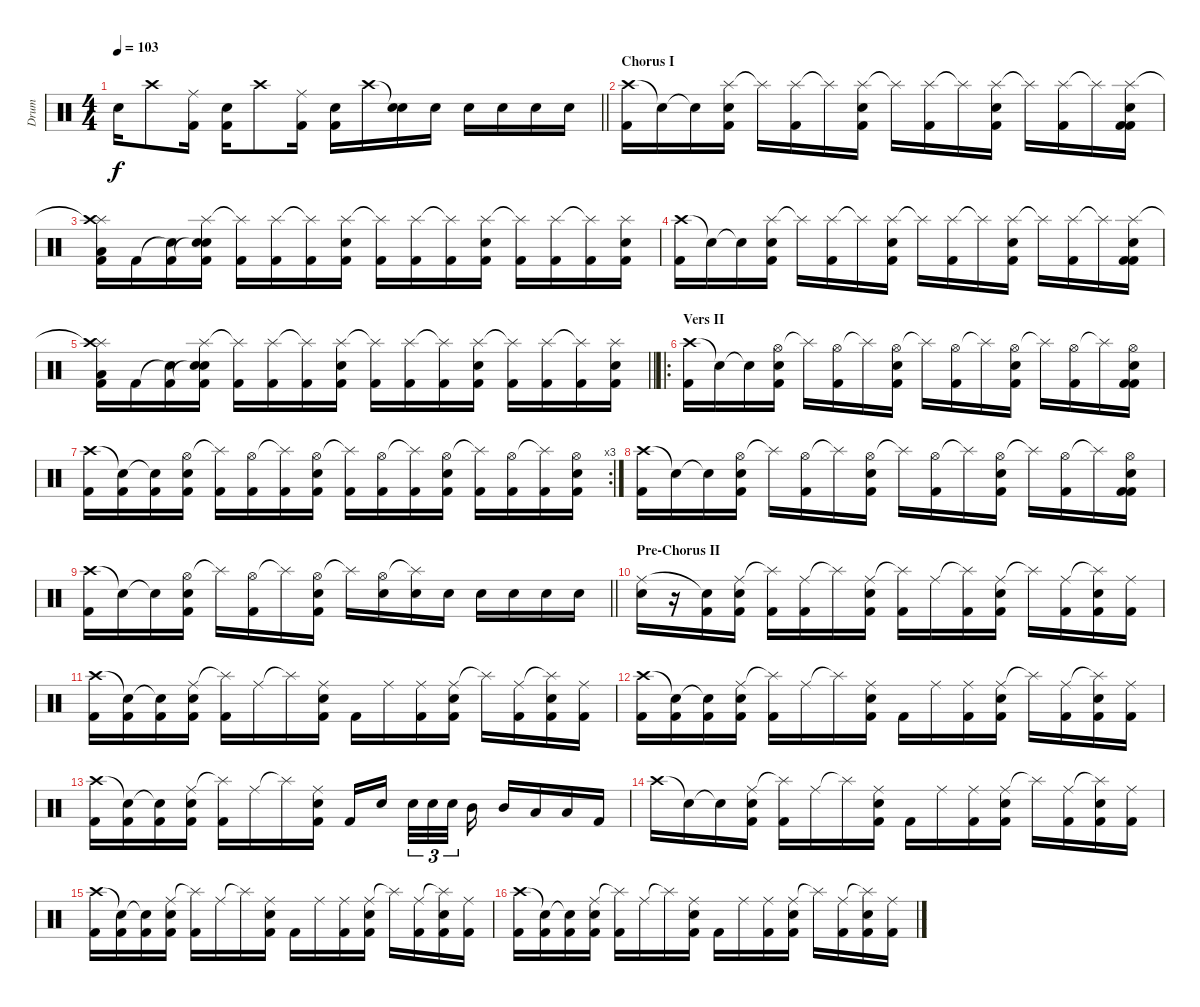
\track ("Drum" "Drum") {instrument percussion}
\staff {score}
\articulation defaults
\ts (4 4)
\tempo 103
\clef neutral
\barLineRight lightlight
\ks c "Snare (hit)"{t}.16{dy f} "Crash high (hit)".8
("Ride (middle)" "Kick (hit) 2").16 ("Electric Snare (hit)" "Kick (hit) 2").16 "Crash high (hit)".8 ("Ride (middle)" "Kick (hit) 2").16 ("Electric Snare (hit)" "Kick (hit) 2").16 "Crash high (hit)".16 ("Snare (hit)"{t} "Electric Snare (hit)").16 "Electric Snare (hit)".16 "Electric Snare (hit)".16 "Electric Snare (hit)".16 "Electric Snare (hit)".16 "Electric Snare (hit)".16 |
\section ("" "Chorus I")
("Crash high (hit)" "Kick (hit) 2").16 "Snare (hit)"{t}.16 "Snare (hit)"{t}.16 ("Splash (hit)" "Electric Snare (hit)" "Kick (hit) 2").16 "Splash (hit)"{t}.16 ("Splash (hit)" "Kick (hit) 2").16 "Splash (hit)"{t}.16 ("Splash (hit)" "Electric Snare (hit)" "Kick (hit) 2").16 "Splash (hit)"{t}.16 ("Splash (hit)" "Kick (hit) 2").16 "Splash (hit)"{t}.16 ("Splash (hit)" "Electric Snare (hit)" "Kick (hit) 2").16 "Splash (hit)"{t}.16 ("Splash (hit)" "Kick (hit) 2").16 "Splash (hit)"{t}.16 ("Splash (hit)" "Electric Snare (hit)" "Kick (hit) 2" "Kick (hit) 2").16 |
("Splash (hit)"{t} "Crash high (hit)" "Low Tom (hit)" "Kick (hit) 2").16 "Kick (hit) 2".16 ("Snare (hit)"{t} "Kick (hit) 2").16 ("Splash (hit)" "Snare (hit)"{t} "Electric Snare (hit)" "Kick (hit) 2").16 ("Splash (hit)"{t} "Kick (hit) 2").16 ("Splash (hit)" "Kick (hit) 2").16 ("Splash (hit)"{t} "Kick (hit) 2").16 ("Splash (hit)" "Electric Snare (hit)" "Kick (hit) 2").16 ("Splash (hit)"{t} "Kick (hit) 2").16 ("Splash (hit)" "Kick (hit) 2").16 ("Splash (hit)"{t} "Kick (hit) 2").16 ("Splash (hit)" "Electric Snare (hit)" "Kick (hit) 2").16 ("Splash (hit)"{t} "Kick (hit) 2").16 ("Splash (hit)" "Kick (hit) 2").16 ("Splash (hit)"{t} "Kick (hit) 2").16 ("Splash (hit)" "Electric Snare (hit)" "Kick (hit) 2").16 |
("Crash high (hit)" "Kick (hit) 2").16 "Snare (hit)"{t}.16 "Snare (hit)"{t}.16 ("Splash (hit)" "Electric Snare (hit)" "Kick (hit) 2").16 "Splash (hit)"{t}.16 ("Splash (hit)" "Kick (hit) 2").16 "Splash (hit)"{t}.16 ("Splash (hit)" "Electric Snare (hit)" "Kick (hit) 2").16 "Splash (hit)"{t}.16 ("Splash (hit)" "Kick (hit) 2").16 "Splash (hit)"{t}.16 ("Splash (hit)" "Electric Snare (hit)" "Kick (hit) 2").16 "Splash (hit)"{t}.16 ("Splash (hit)" "Kick (hit) 2").16 "Splash (hit)"{t}.16 ("Splash (hit)" "Electric Snare (hit)" "Kick (hit) 2" "Kick (hit) 2").16 |
\barLineRight lightlight
("Splash (hit)"{t} "Crash high (hit)" "Low Tom (hit)" "Kick (hit) 2").16 "Kick (hit) 2".16 ("Snare (hit)"{t} "Kick (hit) 2").16 ("Splash (hit)" "Snare (hit)"{t} "Electric Snare (hit)" "Kick (hit) 2").16 ("Splash (hit)"{t} "Kick (hit) 2").16 ("Splash (hit)" "Kick (hit) 2").16 ("Splash (hit)"{t} "Kick (hit) 2").16 ("Splash (hit)" "Electric Snare (hit)" "Kick (hit) 2").16 ("Splash (hit)"{t} "Kick (hit) 2").16 ("Splash (hit)" "Kick (hit) 2").16 ("Splash (hit)"{t} "Kick (hit) 2").16 ("Splash (hit)" "Electric Snare (hit)" "Kick (hit) 2").16 ("Splash (hit)"{t} "Kick (hit) 2").16 ("Splash (hit)" "Kick (hit) 2").16 ("Splash (hit)"{t} "Kick (hit) 2").16 ("Splash (hit)" "Electric Snare (hit)" "Kick (hit) 2").16 |
\ro
\section ("" "Vers II")
("Crash high (hit)" "Kick (hit) 2").16 "Snare (hit)"{t}.16 "Snare (hit)"{t}.16 ("Hi-Hat (open)" "Electric Snare (hit)" "Kick (hit) 2").16 "Splash (hit)"{t}.16 ("Hi-Hat (open)" "Kick (hit) 2").16 "Splash (hit)"{t}.16 ("Hi-Hat (open)" "Electric Snare (hit)" "Kick (hit) 2").16 "Splash (hit)"{t}.16 ("Hi-Hat (open)" "Kick (hit) 2").16 "Splash (hit)"{t}.16 ("Hi-Hat (open)" "Electric Snare (hit)" "Kick (hit) 2").16 "Splash (hit)"{t}.16 ("Hi-Hat (open)" "Kick (hit) 2").16 "Splash (hit)"{t}.16 ("Hi-Hat (open)" "Electric Snare (hit)" "Kick (hit) 2" "Kick (hit) 2").16 |
\rc 3
("Crash high (hit)" "Kick (hit) 2").16 ("Snare (hit)"{t} "Kick (hit) 2").16 ("Snare (hit)"{t} "Kick (hit) 2").16 ("Hi-Hat (open)" "Electric Snare (hit)" "Kick (hit) 2").16 ("Splash (hit)"{t} "Kick (hit) 2").16 ("Hi-Hat (open)" "Kick (hit) 2").16 ("Splash (hit)"{t} "Kick (hit) 2").16 ("Hi-Hat (open)" "Electric Snare (hit)" "Kick (hit) 2").16 ("Splash (hit)"{t} "Kick (hit) 2").16 ("Hi-Hat (open)" "Kick (hit) 2").16 ("Splash (hit)"{t} "Kick (hit) 2").16 ("Hi-Hat (open)" "Electric Snare (hit)" "Kick (hit) 2").16 ("Splash (hit)"{t} "Kick (hit) 2").16 ("Hi-Hat (open)" "Kick (hit) 2").16 ("Splash (hit)"{t} "Kick (hit) 2").16 ("Hi-Hat (open)" "Electric Snare (hit)" "Kick (hit) 2").16 |
("Crash high (hit)" "Kick (hit) 2").16 "Snare (hit)"{t}.16 "Snare (hit)"{t}.16 ("Hi-Hat (open)" "Electric Snare (hit)" "Kick (hit) 2").16 "Splash (hit)"{t}.16 ("Hi-Hat (open)" "Kick (hit) 2").16 "Splash (hit)"{t}.16 ("Hi-Hat (open)" "Electric Snare (hit)" "Kick (hit) 2").16 "Splash (hit)"{t}.16 ("Hi-Hat (open)" "Kick (hit) 2").16 "Splash (hit)"{t}.16 ("Hi-Hat (open)" "Electric Snare (hit)" "Kick (hit) 2").16 "Splash (hit)"{t}.16 ("Hi-Hat (open)" "Kick (hit) 2").16 "Splash (hit)"{t}.16 ("Hi-Hat (open)" "Electric Snare (hit)" "Kick (hit) 2" "Kick (hit) 2").16 |
\barLineRight lightlight
("Crash high (hit)" "Kick (hit) 2").16 "Snare (hit)"{t}.16 "Snare (hit)"{t}.16 ("Hi-Hat (open)" "Electric Snare (hit)" "Kick (hit) 2").16 "Splash (hit)"{t}.16 ("Hi-Hat (open)" "Kick (hit) 2").16 "Splash (hit)"{t}.16 ("Hi-Hat (open)" "Electric Snare (hit)" "Kick (hit) 2").16 "Splash (hit)"{t}.16 ("Hi-Hat (open)" "Electric Snare (hit)").16 ("Splash (hit)"{t} "Electric Snare (hit)").16 "Electric Snare (hit)".16 "Electric Snare (hit)".16 "Electric Snare (hit)".16 "Electric Snare (hit)".16 "Electric Snare (hit)".16 |
\section ("" "Pre-Chorus II")
("Ride (middle)" "Electric Snare (hit)").16 r.16 ("Snare (hit)"{t} "Kick (hit) 2").16 ("Ride (middle)" "Electric Snare (hit)" "Kick (hit) 2").16 ("Splash (hit)"{t} "Kick (hit) 2").16 ("Ride (middle)" "Kick (hit) 2").16 "Splash (hit)"{t}.16 ("Ride (middle)" "Electric Snare (hit)" "Kick (hit) 2").16 ("Splash (hit)"{t} "Kick (hit) 2").16 "Ride (middle)".16 ("Splash (hit)"{t} "Kick (hit) 2").16 ("Ride (middle)" "Electric Snare (hit)" "Kick (hit) 2").16 "Splash (hit)"{t}.16 ("Ride (middle)" "Kick (hit) 2").16 ("Splash (hit)"{t} "Electric Snare (hit)" "Kick (hit) 2").16 ("Ride (middle)" "Kick (hit) 2").16 |
("Crash high (hit)" "Kick (hit) 2").16 ("Snare (hit)"{t} "Kick (hit) 2").16 ("Snare (hit)"{t} "Kick (hit) 2").16 ("Ride (middle)" "Electric Snare (hit)" "Kick (hit) 2").16 ("Splash (hit)"{t} "Kick (hit) 2").16 "Ride (middle)".16 "Splash (hit)"{t}.16 ("Ride (middle)" "Electric Snare (hit)" "Kick (hit) 2").16 "Kick (hit) 2".16 "Ride (middle)".16 ("Ride (middle)" "Kick (hit) 2").16 ("Ride (middle)" "Electric Snare (hit)" "Kick (hit) 2").16 "Splash (hit)"{t}.16 ("Ride (middle)" "Kick (hit) 2").16 ("Splash (hit)"{t} "Electric Snare (hit)" "Kick (hit) 2").16 ("Ride (middle)" "Kick (hit) 2").16 |
("Crash high (hit)" "Kick (hit) 2").16 ("Snare (hit)"{t} "Kick (hit) 2").16 ("Snare (hit)"{t} "Kick (hit) 2").16 ("Ride (middle)" "Electric Snare (hit)" "Kick (hit) 2").16 ("Splash (hit)"{t} "Kick (hit) 2").16 "Ride (middle)".16 "Splash (hit)"{t}.16 ("Ride (middle)" "Electric Snare (hit)" "Kick (hit) 2").16 "Kick (hit) 2".16 "Ride (middle)".16 ("Ride (middle)" "Kick (hit) 2").16 ("Ride (middle)" "Electric Snare (hit)" "Kick (hit) 2").16 "Splash (hit)"{t}.16 ("Ride (middle)" "Kick (hit) 2").16 ("Splash (hit)"{t} "Electric Snare (hit)" "Kick (hit) 2").16 ("Ride (middle)" "Kick (hit) 2").16 |
("Crash high (hit)" "Kick (hit) 2").16 ("Snare (hit)"{t} "Kick (hit) 2").16 ("Snare (hit)"{t} "Kick (hit) 2").16 ("Ride (middle)" "Electric Snare (hit)" "Kick (hit) 2").16 ("Splash (hit)"{t} "Kick (hit) 2").16 "Ride (middle)".16 "Splash (hit)"{t}.16 ("Ride (middle)" "Electric Snare (hit)" "Kick (hit) 2").16 "Kick (hit) 2".16 "Electric Snare (hit)".16{beam splitsecondary} "Electric Snare (hit)".32{tu (3 2)} "Electric Snare (hit)".32{tu (3 2)} "Electric Snare (hit)".32{tu (3 2) beam splitsecondary} "Mid Tom (hit)".16 "Mid Tom (hit)".16 "Low Tom (hit)".16 "Low Tom (hit)".16 "Kick (hit) 2".16 |
"Crash high (hit)".16 "Snare (hit)"{t}.16 "Snare (hit)"{t}.16 ("Ride (middle)" "Electric Snare (hit)" "Kick (hit) 2").16 ("Splash (hit)"{t} "Kick (hit) 2").16 "Ride (middle)".16 "Splash (hit)"{t}.16 ("Ride (middle)" "Electric Snare (hit)" "Kick (hit) 2").16 "Kick (hit) 2".16 "Ride (middle)".16 ("Ride (middle)" "Kick (hit) 2").16 ("Ride (middle)" "Electric Snare (hit)" "Kick (hit) 2").16 "Splash (hit)"{t}.16 ("Ride (middle)" "Kick (hit) 2").16 ("Splash (hit)"{t} "Electric Snare (hit)" "Kick (hit) 2").16 ("Ride (middle)" "Kick (hit) 2").16 |
("Crash high (hit)" "Kick (hit) 2").16 ("Snare (hit)"{t} "Kick (hit) 2").16 ("Snare (hit)"{t} "Kick (hit) 2").16 ("Ride (middle)" "Electric Snare (hit)" "Kick (hit) 2").16 ("Splash (hit)"{t} "Kick (hit) 2").16 "Ride (middle)".16 "Splash (hit)"{t}.16 ("Ride (middle)" "Electric Snare (hit)" "Kick (hit) 2").16 "Kick (hit) 2".16 "Ride (middle)".16 ("Ride (middle)" "Kick (hit) 2").16 ("Ride (middle)" "Electric Snare (hit)" "Kick (hit) 2").16 "Splash (hit)"{t}.16 ("Ride (middle)" "Kick (hit) 2").16 ("Splash (hit)"{t} "Electric Snare (hit)" "Kick (hit) 2").16 ("Ride (middle)" "Kick (hit) 2").16 |
("Crash high (hit)" "Kick (hit) 2").16 ("Snare (hit)"{t} "Kick (hit) 2").16 ("Snare (hit)"{t} "Kick (hit) 2").16 ("Ride (middle)" "Electric Snare (hit)" "Kick (hit) 2").16 ("Splash (hit)"{t} "Kick (hit) 2").16 "Ride (middle)".16 "Splash (hit)"{t}.16 ("Ride (middle)" "Electric Snare (hit)" "Kick (hit) 2").16 "Kick (hit) 2".16 "Ride (middle)".16 ("Ride (middle)" "Kick (hit) 2").16 ("Ride (middle)" "Electric Snare (hit)" "Kick (hit) 2").16 "Splash (hit)"{t}.16 ("Ride (middle)" "Kick (hit) 2").16 ("Splash (hit)"{t} "Electric Snare (hit)" "Kick (hit) 2").16 ("Ride (middle)" "Kick (hit) 2").16
